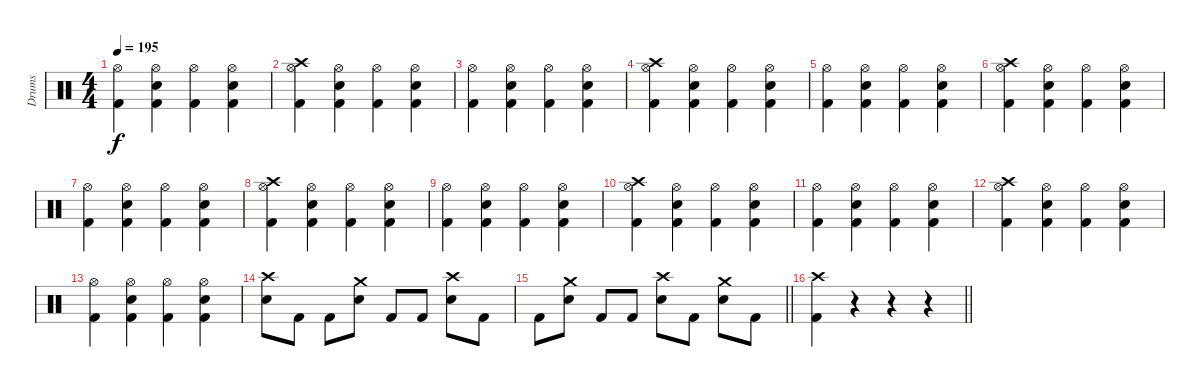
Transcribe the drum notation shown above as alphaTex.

\track ("Drums" "Drums") {instrument percussion}
\staff {score}
\articulation defaults
\ts (4 4)
\tempo 195
\clef neutral
\ks c
("Hi-Hat (open)" "Kick (hit) 2").4{dy f} ("Hi-Hat (open)" "Snare (hit) 2" "Kick (hit) 2").4 ("Hi-Hat (open)" "Kick (hit) 2").4 ("Hi-Hat (open)" "Snare (hit) 2" "Kick (hit) 2").4 |
("Crash high (hit)" "Hi-Hat (open)" "Kick (hit) 2").4 ("Hi-Hat (open)" "Snare (hit) 2" "Kick (hit) 2").4 ("Hi-Hat (open)" "Kick (hit) 2").4 ("Hi-Hat (open)" "Snare (hit) 2" "Kick (hit) 2").4 |
("Hi-Hat (open)" "Kick (hit) 2").4 ("Hi-Hat (open)" "Snare (hit) 2" "Kick (hit) 2").4 ("Hi-Hat (open)" "Kick (hit) 2").4 ("Hi-Hat (open)" "Snare (hit) 2" "Kick (hit) 2").4 |
("Crash high (hit)" "Hi-Hat (open)" "Kick (hit) 2").4 ("Hi-Hat (open)" "Snare (hit) 2" "Kick (hit) 2").4 ("Hi-Hat (open)" "Kick (hit) 2").4 ("Hi-Hat (open)" "Snare (hit) 2" "Kick (hit) 2").4 |
("Hi-Hat (open)" "Kick (hit) 2").4 ("Hi-Hat (open)" "Snare (hit) 2" "Kick (hit) 2").4 ("Hi-Hat (open)" "Kick (hit) 2").4 ("Hi-Hat (open)" "Snare (hit) 2" "Kick (hit) 2").4 |
("Crash high (hit)" "Hi-Hat (open)" "Kick (hit) 2").4 ("Hi-Hat (open)" "Snare (hit) 2" "Kick (hit) 2").4 ("Hi-Hat (open)" "Kick (hit) 2").4 ("Hi-Hat (open)" "Snare (hit) 2" "Kick (hit) 2").4 |
("Hi-Hat (open)" "Kick (hit) 2").4 ("Hi-Hat (open)" "Snare (hit) 2" "Kick (hit) 2").4 ("Hi-Hat (open)" "Kick (hit) 2").4 ("Hi-Hat (open)" "Snare (hit) 2" "Kick (hit) 2").4 |
("Crash high (hit)" "Hi-Hat (open)" "Kick (hit) 2").4 ("Hi-Hat (open)" "Snare (hit) 2" "Kick (hit) 2").4 ("Hi-Hat (open)" "Kick (hit) 2").4 ("Hi-Hat (open)" "Snare (hit) 2" "Kick (hit) 2").4 |
("Hi-Hat (open)" "Kick (hit) 2").4 ("Hi-Hat (open)" "Snare (hit) 2" "Kick (hit) 2").4 ("Hi-Hat (open)" "Kick (hit) 2").4 ("Hi-Hat (open)" "Snare (hit) 2" "Kick (hit) 2").4 |
("Crash high (hit)" "Hi-Hat (open)" "Kick (hit) 2").4 ("Hi-Hat (open)" "Snare (hit) 2" "Kick (hit) 2").4 ("Hi-Hat (open)" "Kick (hit) 2").4 ("Hi-Hat (open)" "Snare (hit) 2" "Kick (hit) 2").4 |
("Hi-Hat (open)" "Kick (hit) 2").4 ("Hi-Hat (open)" "Snare (hit) 2" "Kick (hit) 2").4 ("Hi-Hat (open)" "Kick (hit) 2").4 ("Hi-Hat (open)" "Snare (hit) 2" "Kick (hit) 2").4 |
("Crash high (hit)" "Hi-Hat (open)" "Kick (hit) 2").4 ("Hi-Hat (open)" "Snare (hit) 2" "Kick (hit) 2").4 ("Hi-Hat (open)" "Kick (hit) 2").4 ("Hi-Hat (open)" "Snare (hit) 2" "Kick (hit) 2").4 |
("Hi-Hat (open)" "Kick (hit) 2").4 ("Hi-Hat (open)" "Snare (hit) 2" "Kick (hit) 2").4 ("Hi-Hat (open)" "Kick (hit) 2").4 ("Hi-Hat (open)" "Snare (hit) 2" "Kick (hit) 2").4 |
("Crash high (hit)" "Snare (hit) 2").8 "Kick (hit) 2".8 "Kick (hit) 2".8 ("Crash medium (hit)" "Snare (hit) 2").8 "Kick (hit) 2".8 "Kick (hit) 2".8 ("Crash high (hit)" "Snare (hit) 2").8 "Kick (hit) 2".8 |
\barLineRight lightlight "Kick (hit) 2".8
("Crash medium (hit)" "Snare (hit) 2").8 "Kick (hit) 2".8 "Kick (hit) 2".8 ("Crash high (hit)" "Snare (hit) 2").8 "Kick (hit) 2".8 ("Crash medium (hit)" "Snare (hit) 2").8 "Kick (hit) 2".8 |
\barLineRight lightlight
("Crash high (hit)" "Kick (hit) 2").4 r.4 r.4 r.4
